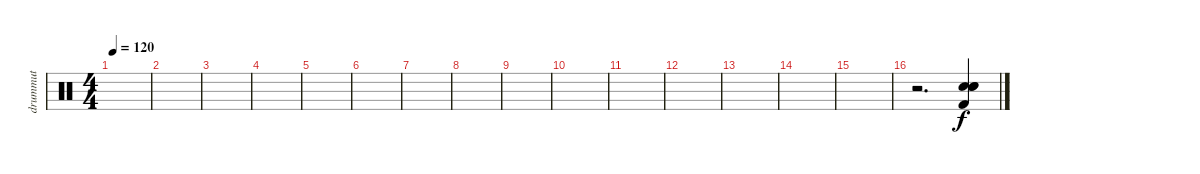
\track ("drummut" "drummut") {instrument percussion}
\staff {score}
\articulation defaults
\ts (4 4)
\tempo 120
\clef neutral
\ks c
|
|
|
|
|
|
|
|
|
|
|
|
|
|
|
r.2{d} ("Kick (hit) 2" "Electric Snare (hit)" "Electric Snare (hit)" "Snare (hit) 2").4
